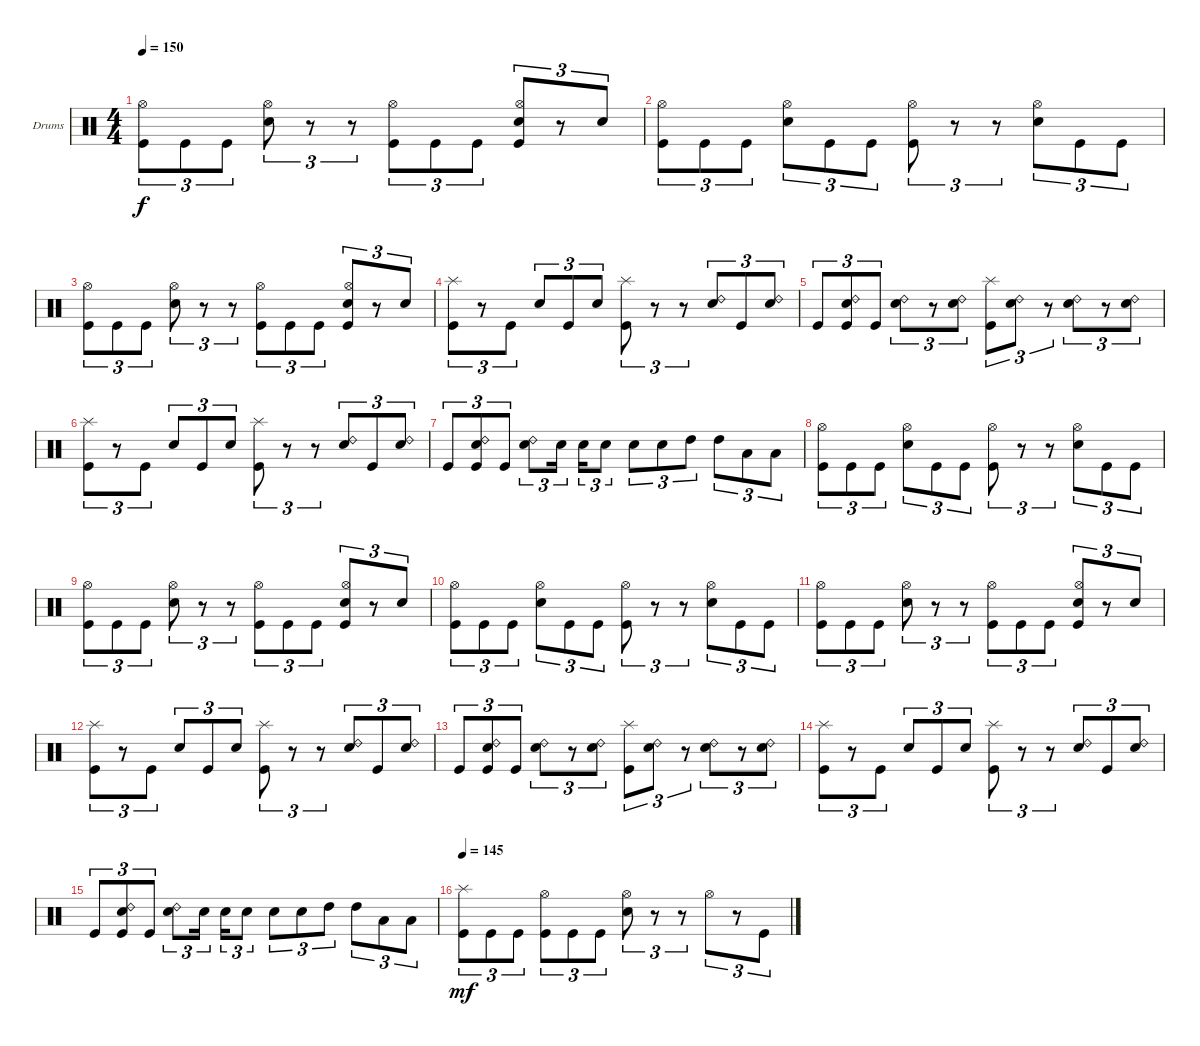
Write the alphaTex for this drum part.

\bracketExtendMode groupsimilarinstruments
\firstSystemTrackNameOrientation horizontal
\otherSystemsTrackNameOrientation horizontal
\track ("Drumkit" "Drums") {instrument percussion}
\staff {score}
\articulation defaults
\ts (4 4)
\tempo 150
\clef neutral
\ks c
("Kick (hit)" "Hi-Hat (open)").8{tu (3 2) dy f} "Kick (hit)".8{tu (3 2)} "Kick (hit)".8{tu (3 2)} ("Snare (hit) 2" "Hi-Hat (open)").8{tu (3 2)} r.8{tu (3 2)} r.8{tu (3 2)} ("Kick (hit)" "Hi-Hat (open)").8{tu (3 2)} "Kick (hit)".8{tu (3 2)} "Kick (hit)".8{tu (3 2)} ("Snare (hit) 2" "Hi-Hat (open)" "Kick (hit)").8{tu (3 2)} r.8{tu (3 2)} "Snare (hit) 2".8{tu (3 2)} |
("Kick (hit)" "Hi-Hat (open)").8{tu (3 2)} "Kick (hit)".8{tu (3 2)} "Kick (hit)".8{tu (3 2)} ("Snare (hit) 2" "Hi-Hat (open)").8{tu (3 2)} "Kick (hit)".8{tu (3 2)} "Kick (hit)".8{tu (3 2)} ("Kick (hit)" "Hi-Hat (open)").8{tu (3 2)} r.8{tu (3 2)} r.8{tu (3 2)} ("Snare (hit) 2" "Hi-Hat (open)").8{tu (3 2)} "Kick (hit)".8{tu (3 2)} "Kick (hit)".8{tu (3 2)} |
("Kick (hit)" "Hi-Hat (open)").8{tu (3 2)} "Kick (hit)".8{tu (3 2)} "Kick (hit)".8{tu (3 2)} ("Snare (hit) 2" "Hi-Hat (open)").8{tu (3 2)} r.8{tu (3 2)} r.8{tu (3 2)} ("Kick (hit)" "Hi-Hat (open)").8{tu (3 2)} "Kick (hit)".8{tu (3 2)} "Kick (hit)".8{tu (3 2)} ("Snare (hit) 2" "Hi-Hat (open)" "Kick (hit)").8{tu (3 2)} r.8{tu (3 2)} "Snare (hit) 2".8{tu (3 2)} |
("Kick (hit)" "Splash (hit)").8{tu (3 2)} r.8{tu (3 2)} "Kick (hit)".8{tu (3 2)} "Snare (hit) 2".8{tu (3 2)} "Kick (hit)".8{tu (3 2)} "Snare (hit) 2".8{tu (3 2)} ("Kick (hit)" "Splash (hit)").8{tu (3 2)} r.8{tu (3 2)} r.8{tu (3 2)} ("Snare (hit) 2" "Ride (bell) 2").8{tu (3 2)} "Kick (hit)".8{tu (3 2)} ("Snare (hit) 2" "Ride (bell) 2").8{tu (3 2)} |
"Kick (hit)".8{tu (3 2)} ("Ride (bell) 2" "Kick (hit)" "Snare (hit) 2").8{tu (3 2)} "Kick (hit)".8{tu (3 2)} ("Ride (bell) 2" "Snare (hit) 2").8{tu (3 2)} r.8{tu (3 2)} ("Ride (bell) 2" "Snare (hit) 2").8{tu (3 2)} ("Splash (hit)" "Kick (hit)").8{tu (3 2)} ("Ride (bell) 2" "Snare (hit) 2").8{tu (3 2)} r.8{tu (3 2)} ("Ride (bell) 2" "Snare (hit) 2").8{tu (3 2)} r.8{tu (3 2)} ("Ride (bell) 2" "Snare (hit) 2").8{tu (3 2)} |
("Kick (hit)" "Splash (hit)").8{tu (3 2)} r.8{tu (3 2)} "Kick (hit)".8{tu (3 2)} "Snare (hit) 2".8{tu (3 2)} "Kick (hit)".8{tu (3 2)} "Snare (hit) 2".8{tu (3 2)} ("Kick (hit)" "Splash (hit)").8{tu (3 2)} r.8{tu (3 2)} r.8{tu (3 2)} ("Snare (hit) 2" "Ride (bell) 2").8{tu (3 2)} "Kick (hit)".8{tu (3 2)} ("Snare (hit) 2" "Ride (bell) 2").8{tu (3 2)} |
"Kick (hit)".8{tu (3 2)} ("Ride (bell) 2" "Kick (hit)" "Snare (hit) 2").8{tu (3 2)} "Kick (hit)".8{tu (3 2)} ("Ride (bell) 2" "Snare (hit) 2").8{tu (3 2)} "Snare (hit) 2".16{tu (3 2)} "Snare (hit) 2".16{tu (3 2)} "Snare (hit) 2".8{tu (3 2)} "Snare (hit) 2".8{tu (3 2)} "Snare (hit) 2".8{tu (3 2)} "High Tom (hit)".8{tu (3 2)} "High Tom (hit)".8{tu (3 2)} "Low Tom (hit)".8{tu (3 2)} "Low Tom (hit)".8{tu (3 2)} |
("Kick (hit)" "Hi-Hat (open)").8{tu (3 2)} "Kick (hit)".8{tu (3 2)} "Kick (hit)".8{tu (3 2)} ("Snare (hit) 2" "Hi-Hat (open)").8{tu (3 2)} "Kick (hit)".8{tu (3 2)} "Kick (hit)".8{tu (3 2)} ("Kick (hit)" "Hi-Hat (open)").8{tu (3 2)} r.8{tu (3 2)} r.8{tu (3 2)} ("Snare (hit) 2" "Hi-Hat (open)").8{tu (3 2)} "Kick (hit)".8{tu (3 2)} "Kick (hit)".8{tu (3 2)} |
("Kick (hit)" "Hi-Hat (open)").8{tu (3 2)} "Kick (hit)".8{tu (3 2)} "Kick (hit)".8{tu (3 2)} ("Snare (hit) 2" "Hi-Hat (open)").8{tu (3 2)} r.8{tu (3 2)} r.8{tu (3 2)} ("Kick (hit)" "Hi-Hat (open)").8{tu (3 2)} "Kick (hit)".8{tu (3 2)} "Kick (hit)".8{tu (3 2)} ("Snare (hit) 2" "Hi-Hat (open)" "Kick (hit)").8{tu (3 2)} r.8{tu (3 2)} "Snare (hit) 2".8{tu (3 2)} |
("Kick (hit)" "Hi-Hat (open)").8{tu (3 2)} "Kick (hit)".8{tu (3 2)} "Kick (hit)".8{tu (3 2)} ("Snare (hit) 2" "Hi-Hat (open)").8{tu (3 2)} "Kick (hit)".8{tu (3 2)} "Kick (hit)".8{tu (3 2)} ("Kick (hit)" "Hi-Hat (open)").8{tu (3 2)} r.8{tu (3 2)} r.8{tu (3 2)} ("Snare (hit) 2" "Hi-Hat (open)").8{tu (3 2)} "Kick (hit)".8{tu (3 2)} "Kick (hit)".8{tu (3 2)} |
("Kick (hit)" "Hi-Hat (open)").8{tu (3 2)} "Kick (hit)".8{tu (3 2)} "Kick (hit)".8{tu (3 2)} ("Snare (hit) 2" "Hi-Hat (open)").8{tu (3 2)} r.8{tu (3 2)} r.8{tu (3 2)} ("Kick (hit)" "Hi-Hat (open)").8{tu (3 2)} "Kick (hit)".8{tu (3 2)} "Kick (hit)".8{tu (3 2)} ("Snare (hit) 2" "Hi-Hat (open)" "Kick (hit)").8{tu (3 2)} r.8{tu (3 2)} "Snare (hit) 2".8{tu (3 2)} |
("Kick (hit)" "Splash (hit)").8{tu (3 2)} r.8{tu (3 2)} "Kick (hit)".8{tu (3 2)} "Snare (hit) 2".8{tu (3 2)} "Kick (hit)".8{tu (3 2)} "Snare (hit) 2".8{tu (3 2)} ("Kick (hit)" "Splash (hit)").8{tu (3 2)} r.8{tu (3 2)} r.8{tu (3 2)} ("Snare (hit) 2" "Ride (bell) 2").8{tu (3 2)} "Kick (hit)".8{tu (3 2)} ("Snare (hit) 2" "Ride (bell) 2").8{tu (3 2)} |
"Kick (hit)".8{tu (3 2)} ("Ride (bell) 2" "Kick (hit)" "Snare (hit) 2").8{tu (3 2)} "Kick (hit)".8{tu (3 2)} ("Ride (bell) 2" "Snare (hit) 2").8{tu (3 2)} r.8{tu (3 2)} ("Ride (bell) 2" "Snare (hit) 2").8{tu (3 2)} ("Splash (hit)" "Kick (hit)").8{tu (3 2)} ("Ride (bell) 2" "Snare (hit) 2").8{tu (3 2)} r.8{tu (3 2)} ("Ride (bell) 2" "Snare (hit) 2").8{tu (3 2)} r.8{tu (3 2)} ("Ride (bell) 2" "Snare (hit) 2").8{tu (3 2)} |
("Kick (hit)" "Splash (hit)").8{tu (3 2)} r.8{tu (3 2)} "Kick (hit)".8{tu (3 2)} "Snare (hit) 2".8{tu (3 2)} "Kick (hit)".8{tu (3 2)} "Snare (hit) 2".8{tu (3 2)} ("Kick (hit)" "Splash (hit)").8{tu (3 2)} r.8{tu (3 2)} r.8{tu (3 2)} ("Snare (hit) 2" "Ride (bell) 2").8{tu (3 2)} "Kick (hit)".8{tu (3 2)} ("Snare (hit) 2" "Ride (bell) 2").8{tu (3 2)} |
"Kick (hit)".8{tu (3 2)} ("Ride (bell) 2" "Kick (hit)" "Snare (hit) 2").8{tu (3 2)} "Kick (hit)".8{tu (3 2)} ("Ride (bell) 2" "Snare (hit) 2").8{tu (3 2)} "Snare (hit) 2".16{tu (3 2)} "Snare (hit) 2".16{tu (3 2)} "Snare (hit) 2".8{tu (3 2)} "Snare (hit) 2".8{tu (3 2)} "Snare (hit) 2".8{tu (3 2)} "High Tom (hit)".8{tu (3 2)} "High Tom (hit)".8{tu (3 2)} "Low Tom (hit)".8{tu (3 2)} "Low Tom (hit)".8{tu (3 2)} |
\tempo 145
("Kick (hit)" "Splash (hit)").8{tu (3 2) dy mf} "Kick (hit)".8{tu (3 2)} "Kick (hit)".8{tu (3 2)} ("Kick (hit)" "Hi-Hat (open)").8{tu (3 2)} "Kick (hit)".8{tu (3 2)} "Kick (hit)".8{tu (3 2)} ("Snare (hit) 2" "Hi-Hat (open)").8{tu (3 2)} r.8{tu (3 2)} r.8{tu (3 2)} "Hi-Hat (open)".8{tu (3 2)} r.8{tu (3 2)} "Kick (hit)".8{tu (3 2)}
